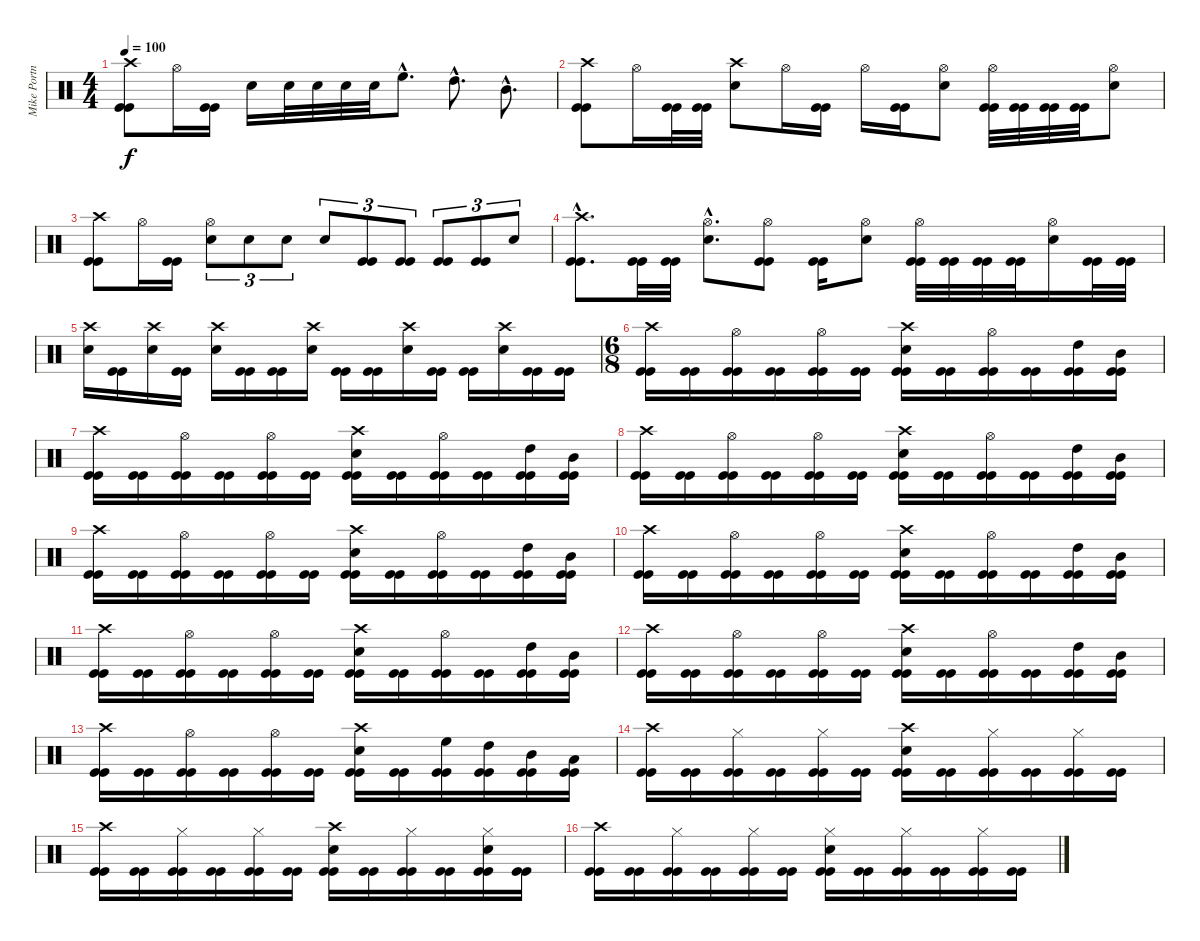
\track ("Mike Portnoy - Drum" "Mike Portn") {instrument percussion}
\staff {score}
\articulation defaults
\ts (4 4)
\tempo 100
\clef neutral
\ks c
("Crash high (hit)" "Kick (hit)" "Kick (hit)").8{dy f} "Hi-Hat (open)".16 ("Kick (hit)" "Kick (hit)").16 "Snare (hit) 2".16 "Snare (hit) 2".32 "Snare (hit) 2".32 "Snare (hit) 2".32 "Snare (hit) 2".32 "High Floor Tom (hit)"{hac}.8{d} "High Tom (hit)"{hac}.8{d} "Mid Tom (hit)"{hac}.8{d} |
("Crash high (hit)" "Kick (hit)" "Kick (hit)").8 "Hi-Hat (open)".16 ("Kick (hit)" "Kick (hit)").32 ("Kick (hit)" "Kick (hit)").32 ("Crash high (hit)" "Snare (hit) 2").8 "Hi-Hat (open)".16 ("Kick (hit)" "Kick (hit)").16 "Hi-Hat (open)".16 ("Kick (hit)" "Kick (hit)").16 ("Hi-Hat (open)" "Snare (hit) 2").8 ("Hi-Hat (open)" "Kick (hit)" "Kick (hit)").32 ("Kick (hit)" "Kick (hit)").32 ("Kick (hit)" "Kick (hit)").32 ("Kick (hit)" "Kick (hit)").32 ("Hi-Hat (open)" "Snare (hit) 2").8 |
("Crash high (hit)" "Kick (hit)" "Kick (hit)").8 "Hi-Hat (open)".16 ("Kick (hit)" "Kick (hit)").16 ("Hi-Hat (open)" "Snare (hit) 2").8{tu (3 2)} "Snare (hit) 2".8{tu (3 2)} "Snare (hit) 2".8{tu (3 2)} "Snare (hit) 2".8{tu (3 2)} ("Kick (hit)" "Kick (hit)").8{tu (3 2)} ("Kick (hit)" "Kick (hit)").8{tu (3 2)} ("Kick (hit)" "Kick (hit)").8{tu (3 2)} ("Kick (hit)" "Kick (hit)").8{tu (3 2)} "Snare (hit) 2".8{tu (3 2)} |
("Crash high (hit)"{hac} "Kick (hit)"{hac} "Kick (hit)"{hac}).8{d} ("Kick (hit)" "Kick (hit)").32 ("Kick (hit)" "Kick (hit)").32 ("Hi-Hat (open)"{hac} "Snare (hit) 2"{hac}).8{d} ("Hi-Hat (open)" "Kick (hit)" "Kick (hit)").8 ("Kick (hit)" "Kick (hit)").16 ("Hi-Hat (open)" "Snare (hit) 2").8 ("Hi-Hat (open)" "Kick (hit)" "Kick (hit)").32 ("Kick (hit)" "Kick (hit)").32 ("Kick (hit)" "Kick (hit)").32 ("Kick (hit)" "Kick (hit)").32 ("Hi-Hat (open)" "Snare (hit) 2").16 ("Kick (hit)" "Kick (hit)").32 ("Kick (hit)" "Kick (hit)").32 |
("Crash high (hit)" "Snare (hit) 2").16 ("Kick (hit)" "Kick (hit)").16 ("Crash high (hit)" "Snare (hit) 2").16 ("Kick (hit)" "Kick (hit)").16 ("Crash high (hit)" "Snare (hit) 2").16 ("Kick (hit)" "Kick (hit)").16 ("Kick (hit)" "Kick (hit)").16 ("Crash high (hit)" "Snare (hit) 2").16 ("Kick (hit)" "Kick (hit)").16 ("Kick (hit)" "Kick (hit)").16 ("Crash high (hit)" "Snare (hit) 2").16 ("Kick (hit)" "Kick (hit)").16 ("Kick (hit)" "Kick (hit)").16 ("Crash high (hit)" "Snare (hit) 2").16 ("Kick (hit)" "Kick (hit)").16 ("Kick (hit)" "Kick (hit)").16 |
\ts (6 8)
("Crash high (hit)" "Kick (hit)" "Kick (hit)").16 ("Kick (hit)" "Kick (hit)").16 ("Hi-Hat (open)" "Kick (hit)" "Kick (hit)").16 ("Kick (hit)" "Kick (hit)").16 ("Hi-Hat (open)" "Kick (hit)" "Kick (hit)").16 ("Kick (hit)" "Kick (hit)").16 ("Crash high (hit)" "Snare (hit) 2" "Kick (hit)" "Kick (hit)").16 ("Kick (hit)" "Kick (hit)").16 ("Hi-Hat (open)" "Kick (hit)" "Kick (hit)").16 ("Kick (hit)" "Kick (hit)").16 ("High Tom (hit)" "Kick (hit)" "Kick (hit)").16 ("Mid Tom (hit)" "Kick (hit)" "Kick (hit)").16 |
("Crash high (hit)" "Kick (hit)" "Kick (hit)").16 ("Kick (hit)" "Kick (hit)").16 ("Hi-Hat (open)" "Kick (hit)" "Kick (hit)").16 ("Kick (hit)" "Kick (hit)").16 ("Hi-Hat (open)" "Kick (hit)" "Kick (hit)").16 ("Kick (hit)" "Kick (hit)").16 ("Crash high (hit)" "Snare (hit) 2" "Kick (hit)" "Kick (hit)").16 ("Kick (hit)" "Kick (hit)").16 ("Hi-Hat (open)" "Kick (hit)" "Kick (hit)").16 ("Kick (hit)" "Kick (hit)").16 ("High Tom (hit)" "Kick (hit)" "Kick (hit)").16 ("Mid Tom (hit)" "Kick (hit)" "Kick (hit)").16 |
("Crash high (hit)" "Kick (hit)" "Kick (hit)").16 ("Kick (hit)" "Kick (hit)").16 ("Hi-Hat (open)" "Kick (hit)" "Kick (hit)").16 ("Kick (hit)" "Kick (hit)").16 ("Hi-Hat (open)" "Kick (hit)" "Kick (hit)").16 ("Kick (hit)" "Kick (hit)").16 ("Crash high (hit)" "Snare (hit) 2" "Kick (hit)" "Kick (hit)").16 ("Kick (hit)" "Kick (hit)").16 ("Hi-Hat (open)" "Kick (hit)" "Kick (hit)").16 ("Kick (hit)" "Kick (hit)").16 ("High Tom (hit)" "Kick (hit)" "Kick (hit)").16 ("Mid Tom (hit)" "Kick (hit)" "Kick (hit)").16 |
("Crash high (hit)" "Kick (hit)" "Kick (hit)").16 ("Kick (hit)" "Kick (hit)").16 ("Hi-Hat (open)" "Kick (hit)" "Kick (hit)").16 ("Kick (hit)" "Kick (hit)").16 ("Hi-Hat (open)" "Kick (hit)" "Kick (hit)").16 ("Kick (hit)" "Kick (hit)").16 ("Crash high (hit)" "Snare (hit) 2" "Kick (hit)" "Kick (hit)").16 ("Kick (hit)" "Kick (hit)").16 ("Hi-Hat (open)" "Kick (hit)" "Kick (hit)").16 ("Kick (hit)" "Kick (hit)").16 ("High Tom (hit)" "Kick (hit)" "Kick (hit)").16 ("Mid Tom (hit)" "Kick (hit)" "Kick (hit)").16 |
("Crash high (hit)" "Kick (hit)" "Kick (hit)").16 ("Kick (hit)" "Kick (hit)").16 ("Hi-Hat (open)" "Kick (hit)" "Kick (hit)").16 ("Kick (hit)" "Kick (hit)").16 ("Hi-Hat (open)" "Kick (hit)" "Kick (hit)").16 ("Kick (hit)" "Kick (hit)").16 ("Crash high (hit)" "Snare (hit) 2" "Kick (hit)" "Kick (hit)").16 ("Kick (hit)" "Kick (hit)").16 ("Hi-Hat (open)" "Kick (hit)" "Kick (hit)").16 ("Kick (hit)" "Kick (hit)").16 ("High Tom (hit)" "Kick (hit)" "Kick (hit)").16 ("Mid Tom (hit)" "Kick (hit)" "Kick (hit)").16 |
("Crash high (hit)" "Kick (hit)" "Kick (hit)").16 ("Kick (hit)" "Kick (hit)").16 ("Hi-Hat (open)" "Kick (hit)" "Kick (hit)").16 ("Kick (hit)" "Kick (hit)").16 ("Hi-Hat (open)" "Kick (hit)" "Kick (hit)").16 ("Kick (hit)" "Kick (hit)").16 ("Crash high (hit)" "Snare (hit) 2" "Kick (hit)" "Kick (hit)").16 ("Kick (hit)" "Kick (hit)").16 ("Hi-Hat (open)" "Kick (hit)" "Kick (hit)").16 ("Kick (hit)" "Kick (hit)").16 ("High Tom (hit)" "Kick (hit)" "Kick (hit)").16 ("Mid Tom (hit)" "Kick (hit)" "Kick (hit)").16 |
("Crash high (hit)" "Kick (hit)" "Kick (hit)").16 ("Kick (hit)" "Kick (hit)").16 ("Hi-Hat (open)" "Kick (hit)" "Kick (hit)").16 ("Kick (hit)" "Kick (hit)").16 ("Hi-Hat (open)" "Kick (hit)" "Kick (hit)").16 ("Kick (hit)" "Kick (hit)").16 ("Crash high (hit)" "Snare (hit) 2" "Kick (hit)" "Kick (hit)").16 ("Kick (hit)" "Kick (hit)").16 ("Hi-Hat (open)" "Kick (hit)" "Kick (hit)").16 ("Kick (hit)" "Kick (hit)").16 ("High Tom (hit)" "Kick (hit)" "Kick (hit)").16 ("Mid Tom (hit)" "Kick (hit)" "Kick (hit)").16 |
("Crash high (hit)" "Kick (hit)" "Kick (hit)").16 ("Kick (hit)" "Kick (hit)").16 ("Hi-Hat (open)" "Kick (hit)" "Kick (hit)").16 ("Kick (hit)" "Kick (hit)").16 ("Hi-Hat (open)" "Kick (hit)" "Kick (hit)").16 ("Kick (hit)" "Kick (hit)").16 ("Crash high (hit)" "Snare (hit) 2" "Kick (hit)" "Kick (hit)").16 ("Kick (hit)" "Kick (hit)").16 ("High Floor Tom (hit)" "Kick (hit)" "Kick (hit)").16 ("High Tom (hit)" "Kick (hit)" "Kick (hit)").16 ("Mid Tom (hit)" "Kick (hit)" "Kick (hit)").16 ("Low Tom (hit)" "Kick (hit)" "Kick (hit)").16 |
("Crash high (hit)" "Kick (hit)" "Kick (hit)").16 ("Kick (hit)" "Kick (hit)").16 ("Hi-Hat (closed)" "Kick (hit)" "Kick (hit)").16 ("Kick (hit)" "Kick (hit)").16 ("Hi-Hat (closed)" "Kick (hit)" "Kick (hit)").16 ("Kick (hit)" "Kick (hit)").16 ("Crash high (hit)" "Snare (hit) 2" "Kick (hit)" "Kick (hit)").16 ("Kick (hit)" "Kick (hit)").16 ("Hi-Hat (closed)" "Kick (hit)" "Kick (hit)").16 ("Kick (hit)" "Kick (hit)").16 ("Hi-Hat (closed)" "Kick (hit)" "Kick (hit)").16 ("Kick (hit)" "Kick (hit)").16 |
("Crash high (hit)" "Kick (hit)" "Kick (hit)").16 ("Kick (hit)" "Kick (hit)").16 ("Hi-Hat (closed)" "Kick (hit)" "Kick (hit)").16 ("Kick (hit)" "Kick (hit)").16 ("Hi-Hat (closed)" "Kick (hit)" "Kick (hit)").16 ("Kick (hit)" "Kick (hit)").16 ("Crash high (hit)" "Snare (hit) 2" "Kick (hit)" "Kick (hit)").16 ("Kick (hit)" "Kick (hit)").16 ("Hi-Hat (closed)" "Kick (hit)" "Kick (hit)").16 ("Kick (hit)" "Kick (hit)").16 ("Hi-Hat (closed)" "Snare (hit) 2" "Kick (hit)" "Kick (hit)").16 ("Kick (hit)" "Kick (hit)").16 |
("Crash high (hit)" "Kick (hit)" "Kick (hit)").16 ("Kick (hit)" "Kick (hit)").16 ("Hi-Hat (closed)" "Kick (hit)" "Kick (hit)").16 ("Kick (hit)" "Kick (hit)").16 ("Hi-Hat (closed)" "Kick (hit)" "Kick (hit)").16 ("Kick (hit)" "Kick (hit)").16 ("Hi-Hat (closed)" "Snare (hit) 2" "Kick (hit)" "Kick (hit)").16 ("Kick (hit)" "Kick (hit)").16 ("Hi-Hat (closed)" "Kick (hit)" "Kick (hit)").16 ("Kick (hit)" "Kick (hit)").16 ("Hi-Hat (closed)" "Kick (hit)" "Kick (hit)").16 ("Kick (hit)" "Kick (hit)").16
